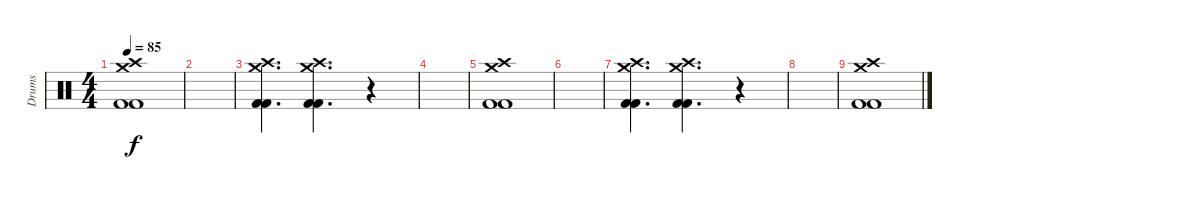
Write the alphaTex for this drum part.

\track ("Drums" "Drums") {instrument percussion}
\staff {score}
\articulation defaults
\ts (4 4)
\tempo 85
\clef neutral
\ks c
("Crash medium (hit)" "Crash high (hit)" "Kick (hit) 2" "Kick (hit) 2").1{dy f} |
|
("Crash medium (hit)" "Crash high (hit)" "Kick (hit) 2" "Kick (hit) 2").4{d} ("Crash medium (hit)" "Crash high (hit)" "Kick (hit) 2" "Kick (hit) 2").4{d} r.4 |
|
("Crash medium (hit)" "Crash high (hit)" "Kick (hit) 2" "Kick (hit) 2").1 |
|
("Crash medium (hit)" "Crash high (hit)" "Kick (hit) 2" "Kick (hit) 2").4{d} ("Crash medium (hit)" "Crash high (hit)" "Kick (hit) 2" "Kick (hit) 2").4{d} r.4 |
|
("Crash medium (hit)" "Crash high (hit)" "Kick (hit) 2" "Kick (hit) 2").1
